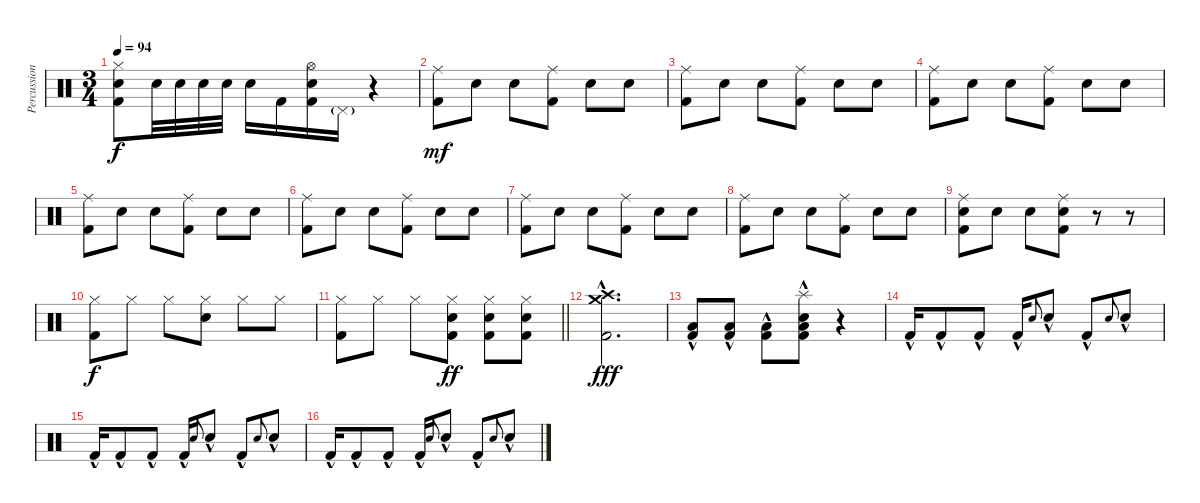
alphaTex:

\track ("Percussion" "Percussion") {instrument percussion}
\staff {score}
\articulation defaults
\ts (3 4)
\tempo 94
\clef neutral
\ks c
("Hi-Hat (closed)" "Snare (hit) 2" "Kick (hit) 2").8{dy f} "Snare (hit) 2".32 "Snare (hit) 2".32 "Snare (hit) 2".32 "Snare (hit) 2".32 "Snare (hit) 2".16 "Kick (hit) 2".16 ("Hi-Hat (open)" "Snare (hit) 2" "Kick (hit) 2").16 "Pedal Hi-Hat (hit)"{g}.16 r.4 |
("Ride (middle)" "Kick (hit) 2").8{dy mf} "Snare (hit) 2".8 "Snare (hit) 2".8 ("Ride (middle)" "Kick (hit) 2").8 "Snare (hit) 2".8 "Snare (hit) 2".8 |
("Ride (middle)" "Kick (hit) 2").8 "Snare (hit) 2".8 "Snare (hit) 2".8 ("Ride (middle)" "Kick (hit) 2").8 "Snare (hit) 2".8 "Snare (hit) 2".8 |
("Ride (middle)" "Kick (hit) 2").8 "Snare (hit) 2".8 "Snare (hit) 2".8 ("Ride (middle)" "Kick (hit) 2").8 "Snare (hit) 2".8 "Snare (hit) 2".8 |
("Ride (middle)" "Kick (hit) 2").8 "Snare (hit) 2".8 "Snare (hit) 2".8 ("Ride (middle)" "Kick (hit) 2").8 "Snare (hit) 2".8 "Snare (hit) 2".8 |
("Ride (middle)" "Kick (hit) 2").8 "Snare (hit) 2".8 "Snare (hit) 2".8 ("Ride (middle)" "Kick (hit) 2").8 "Snare (hit) 2".8 "Snare (hit) 2".8 |
("Ride (middle)" "Kick (hit) 2").8 "Snare (hit) 2".8 "Snare (hit) 2".8 ("Ride (middle)" "Kick (hit) 2").8 "Snare (hit) 2".8 "Snare (hit) 2".8 |
("Ride (middle)" "Kick (hit) 2").8 "Snare (hit) 2".8 "Snare (hit) 2".8 ("Ride (middle)" "Kick (hit) 2").8 "Snare (hit) 2".8 "Snare (hit) 2".8 |
("Ride (middle)" "Snare (hit) 2" "Kick (hit) 2").8 "Snare (hit) 2".8 "Snare (hit) 2".8 ("Ride (middle)" "Snare (hit) 2" "Kick (hit) 2").8 r.8 r.8 |
("Hi-Hat (closed)" "Kick (hit) 2").8{dy f} "Hi-Hat (closed)".8 "Hi-Hat (closed)".8 ("Hi-Hat (closed)" "Snare (hit) 2").8 "Hi-Hat (closed)".8 "Hi-Hat (closed)".8 |
\barLineRight lightlight
("Hi-Hat (closed)" "Kick (hit) 2").8 "Hi-Hat (closed)".8 "Hi-Hat (closed)".8 ("Hi-Hat (closed)" "Snare (hit) 2" "Kick (hit) 2").8{dy ff} ("Hi-Hat (closed)" "Snare (hit) 2" "Kick (hit) 2").8 ("Hi-Hat (closed)" "Snare (hit) 2" "Kick (hit) 2").8 |
\section ("" "")
("Crash high (hit)"{hac} "Crash medium (hit)"{hac} "Kick (hit) 2"{hac}).2{d dy fff volume 16} |
("Low Floor Tom (hit)"{hac} "Kick (hit) 2"{hac}).8 ("Low Floor Tom (hit)"{hac} "Kick (hit) 2"{hac}).8 ("Low Floor Tom (hit)"{hac} "Kick (hit) 2"{hac}).8 ("Splash (hit)"{hac} "Snare (hit) 2"{hac} "Low Floor Tom (hit)"{hac} "Kick (hit) 2"{hac}).8 r.4 |
"Kick (hit) 2"{hac}.16 "Kick (hit) 2"{hac}.8 "Kick (hit) 2"{hac}.8 "Kick (hit) 2"{hac}.16 "Snare (hit) 2".8{gr onbeat} "Snare (hit) 2"{hac}.8 "Kick (hit) 2"{hac}.8 "Snare (hit) 2".8{gr onbeat} "Snare (hit) 2"{hac}.8 |
"Kick (hit) 2"{hac}.16 "Kick (hit) 2"{hac}.8 "Kick (hit) 2"{hac}.8 "Kick (hit) 2"{hac}.16 "Snare (hit) 2".8{gr onbeat} "Snare (hit) 2"{hac}.8 "Kick (hit) 2"{hac}.8 "Snare (hit) 2".8{gr onbeat} "Snare (hit) 2"{hac}.8 |
"Kick (hit) 2"{hac}.16 "Kick (hit) 2"{hac}.8 "Kick (hit) 2"{hac}.8 "Kick (hit) 2"{hac}.16 "Snare (hit) 2".8{gr onbeat} "Snare (hit) 2"{hac}.8 "Kick (hit) 2"{hac}.8 "Snare (hit) 2".8{gr onbeat} "Snare (hit) 2"{hac}.8
